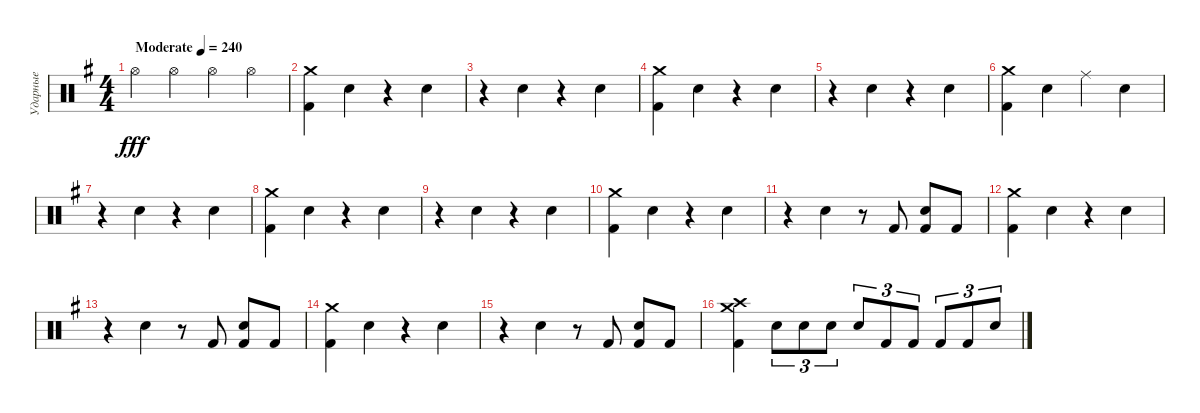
\track ("Ударные" "Ударные") {instrument percussion}
\staff {score}
\articulation defaults
\ts (4 4)
\tempo (240 "Moderate")
\clef neutral
\ks eminor "Hi-Hat (open)".4{dy fff} "Hi-Hat (open)".4 "Hi-Hat (open)".4 "Hi-Hat (open)".4
|
("Crash medium (hit)" "Kick (hit) 2").4 "Electric Snare (hit)".4 r.4 "Electric Snare (hit)".4 |
r.4 "Electric Snare (hit)".4 r.4 "Electric Snare (hit)".4 |
("Crash medium (hit)" "Kick (hit) 2").4 "Electric Snare (hit)".4 r.4 "Electric Snare (hit)".4 |
r.4 "Electric Snare (hit)".4 r.4 "Electric Snare (hit)".4 |
("Crash medium (hit)" "Kick (hit) 2").4 "Electric Snare (hit)".4 "Ride (middle)".4 "Electric Snare (hit)".4 |
r.4 "Electric Snare (hit)".4 r.4 "Electric Snare (hit)".4 |
("Crash medium (hit)" "Kick (hit) 2").4 "Electric Snare (hit)".4 r.4 "Electric Snare (hit)".4 |
r.4 "Electric Snare (hit)".4 r.4 "Electric Snare (hit)".4 |
("Crash medium (hit)" "Kick (hit) 2").4 "Electric Snare (hit)".4 r.4 "Electric Snare (hit)".4 |
r.4 "Electric Snare (hit)".4 r.8 "Kick (hit) 2".8 ("Electric Snare (hit)" "Kick (hit) 2").8 "Kick (hit) 2".8 |
("Crash medium (hit)" "Kick (hit) 2").4 "Electric Snare (hit)".4 r.4 "Electric Snare (hit)".4 |
r.4 "Electric Snare (hit)".4 r.8 "Kick (hit) 2".8 ("Electric Snare (hit)" "Kick (hit) 2").8 "Kick (hit) 2".8 |
("Crash medium (hit)" "Kick (hit) 2").4 "Electric Snare (hit)".4 r.4 "Electric Snare (hit)".4 |
r.4 "Electric Snare (hit)".4 r.8 "Kick (hit) 2".8 ("Electric Snare (hit)" "Kick (hit) 2").8 "Kick (hit) 2".8 |
("Crash medium (hit)" "Crash high (hit)" "Kick (hit) 2").4 "Electric Snare (hit)".8{tu (3 2)} "Electric Snare (hit)".8{tu (3 2)} "Electric Snare (hit)".8{tu (3 2)} "Electric Snare (hit)".8{tu (3 2)} "Kick (hit) 2".8{tu (3 2)} "Kick (hit) 2".8{tu (3 2)} "Kick (hit) 2".8{tu (3 2)} "Kick (hit) 2".8{tu (3 2)} "Electric Snare (hit)".8{tu (3 2)}
